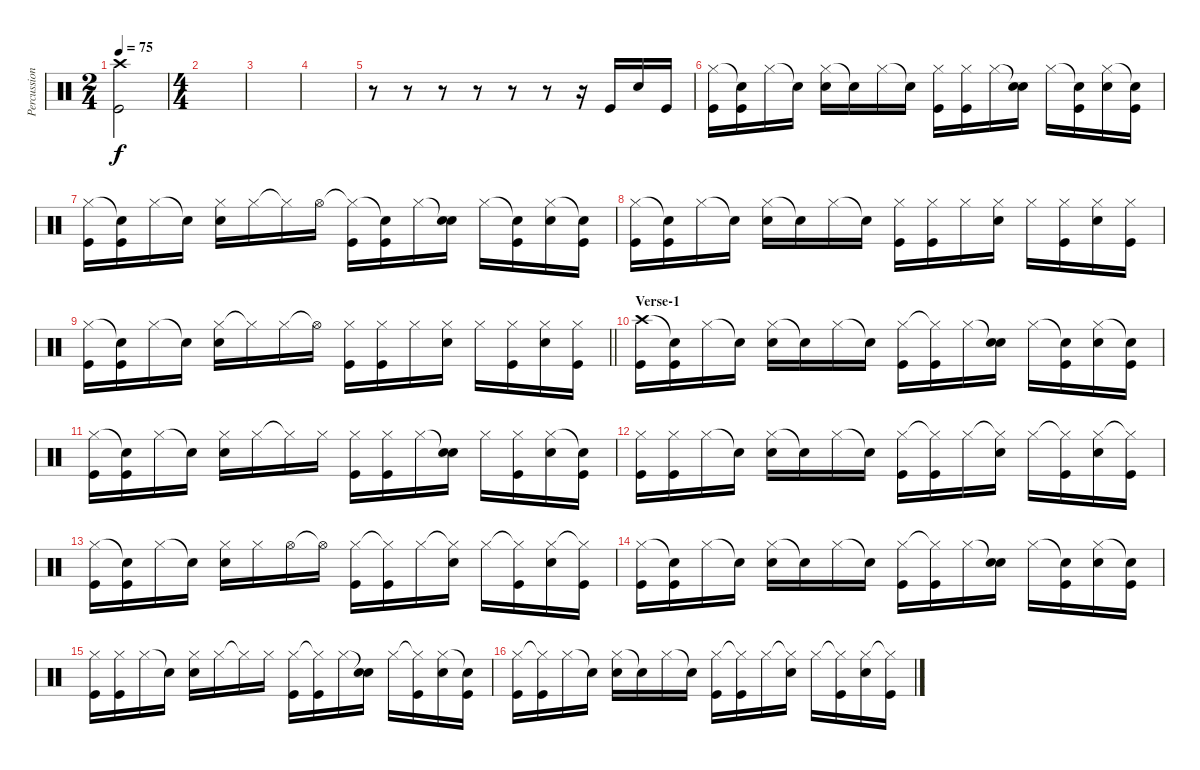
\track ("Percussion" "Percussion") {instrument percussion}
\staff {score}
\articulation defaults
\ts (2 4)
\tempo 75
\clef neutral
\ks c
("Crash high (hit)" "Kick (hit)").2{dy f} |
\ts (4 4)
|
|
|
r.8 r.8 r.8 r.8 r.8 r.8 r.16 "Kick (hit)".16 "Electric Snare (hit)".16 "Kick (hit)".16 |
("Hi-Hat (closed)" "Kick (hit)").16 ("Snare (hit)"{t} "Kick (hit)").16 "Hi-Hat (closed)".16 "Snare (hit)"{t}.16 ("Hi-Hat (closed)" "Electric Snare (hit)").16 "Snare (hit)"{t}.16 "Hi-Hat (closed)".16 "Snare (hit)"{t}.16 ("Hi-Hat (closed)" "Kick (hit)").16 ("Hi-Hat (closed)" "Kick (hit)").16 "Hi-Hat (closed)".16 ("Snare (hit)"{t} "Electric Snare (hit)").16 "Hi-Hat (closed)".16 ("Snare (hit)"{t} "Kick (hit)").16 ("Hi-Hat (closed)" "Electric Snare (hit)").16 ("Snare (hit)"{t} "Kick (hit)").16 |
("Hi-Hat (closed)" "Kick (hit)").16 ("Snare (hit)"{t} "Kick (hit)").16 "Hi-Hat (closed)".16 "Snare (hit)"{t}.16 ("Hi-Hat (closed)" "Electric Snare (hit)").16 "Hi-Hat (closed)".16 "Hi-Hat (closed)"{t}.16 "Hi-Hat (open)".16 ("Hi-Hat (closed)"{t} "Kick (hit)").16 ("Snare (hit)"{t} "Kick (hit)").16 "Hi-Hat (closed)".16 ("Snare (hit)"{t} "Electric Snare (hit)").16 "Hi-Hat (closed)".16 ("Snare (hit)"{t} "Kick (hit)").16 ("Hi-Hat (closed)" "Electric Snare (hit)").16 ("Snare (hit)"{t} "Kick (hit)").16 |
("Hi-Hat (closed)" "Kick (hit)").16 ("Snare (hit)"{t} "Kick (hit)").16 "Hi-Hat (closed)".16 "Snare (hit)"{t}.16 ("Hi-Hat (closed)" "Electric Snare (hit)").16 "Snare (hit)"{t}.16 "Hi-Hat (closed)".16 "Snare (hit)"{t}.16 ("Hi-Hat (closed)" "Kick (hit)").16 ("Hi-Hat (closed)" "Kick (hit)").16 "Hi-Hat (closed)".16 ("Hi-Hat (closed)" "Electric Snare (hit)").16 "Hi-Hat (closed)".16 ("Hi-Hat (closed)" "Kick (hit)").16 ("Hi-Hat (closed)" "Electric Snare (hit)").16 ("Hi-Hat (closed)" "Kick (hit)").16 |
\barLineRight lightlight
("Hi-Hat (closed)" "Kick (hit)").16 ("Snare (hit)"{t} "Kick (hit)").16 "Hi-Hat (closed)".16 "Snare (hit)"{t}.16 ("Hi-Hat (closed)" "Electric Snare (hit)").16 "Hi-Hat (closed)"{t}.16 "Hi-Hat (closed)".16 "Hi-Hat (open)"{t}.16 ("Hi-Hat (closed)" "Kick (hit)").16 ("Hi-Hat (closed)" "Kick (hit)").16 "Hi-Hat (closed)".16 ("Hi-Hat (closed)" "Electric Snare (hit)").16 "Hi-Hat (closed)".16 ("Hi-Hat (closed)" "Kick (hit)").16 ("Hi-Hat (closed)" "Electric Snare (hit)").16 ("Hi-Hat (closed)" "Kick (hit)").16 |
\section ("" "Verse-1")
("Crash high (hit)" "Kick (hit)").16 ("Snare (hit)"{t} "Kick (hit)").16 "Hi-Hat (closed)".16 "Snare (hit)"{t}.16 ("Hi-Hat (closed)" "Electric Snare (hit)").16 "Snare (hit)"{t}.16 "Hi-Hat (closed)".16 "Snare (hit)"{t}.16 ("Hi-Hat (closed)" "Kick (hit)").16 ("Hi-Hat (closed)"{t} "Kick (hit)").16 "Hi-Hat (closed)".16 ("Snare (hit)"{t} "Electric Snare (hit)").16 "Hi-Hat (closed)".16 ("Snare (hit)"{t} "Kick (hit)").16 ("Hi-Hat (closed)" "Electric Snare (hit)").16 ("Snare (hit)"{t} "Kick (hit)").16 |
("Hi-Hat (closed)" "Kick (hit)").16 ("Snare (hit)"{t} "Kick (hit)").16 "Hi-Hat (closed)".16 "Snare (hit)"{t}.16 ("Hi-Hat (closed)" "Electric Snare (hit)").16 "Hi-Hat (closed)".16 "Hi-Hat (closed)"{t}.16 "Hi-Hat (closed)".16 ("Hi-Hat (closed)" "Kick (hit)").16 ("Hi-Hat (closed)" "Kick (hit)").16 "Hi-Hat (closed)".16 ("Snare (hit)"{t} "Electric Snare (hit)").16 "Hi-Hat (closed)".16 ("Hi-Hat (closed)" "Kick (hit)").16 ("Hi-Hat (closed)" "Electric Snare (hit)").16 ("Snare (hit)"{t} "Kick (hit)").16 |
("Hi-Hat (closed)" "Kick (hit)").16 ("Hi-Hat (closed)" "Kick (hit)").16 "Hi-Hat (closed)".16 "Snare (hit)"{t}.16 ("Hi-Hat (closed)" "Electric Snare (hit)").16 "Snare (hit)"{t}.16 "Hi-Hat (closed)".16 "Snare (hit)"{t}.16 ("Hi-Hat (closed)" "Kick (hit)").16 ("Hi-Hat (closed)"{t} "Kick (hit)").16 "Hi-Hat (closed)".16 ("Hi-Hat (closed)"{t} "Electric Snare (hit)").16 "Hi-Hat (closed)".16 ("Hi-Hat (closed)"{t} "Kick (hit)").16 ("Hi-Hat (closed)" "Electric Snare (hit)").16 ("Hi-Hat (closed)"{t} "Kick (hit)").16 |
("Hi-Hat (closed)" "Kick (hit)").16 ("Snare (hit)"{t} "Kick (hit)").16 "Hi-Hat (closed)".16 "Snare (hit)"{t}.16 ("Hi-Hat (closed)" "Electric Snare (hit)").16 "Hi-Hat (closed)".16 "Hi-Hat (open)".16 "Hi-Hat (open)"{t}.16 ("Hi-Hat (closed)" "Kick (hit)").16 ("Hi-Hat (closed)"{t} "Kick (hit)").16 "Hi-Hat (closed)".16 ("Hi-Hat (closed)"{t} "Electric Snare (hit)").16 "Hi-Hat (closed)".16 ("Hi-Hat (closed)"{t} "Kick (hit)").16 ("Hi-Hat (closed)" "Electric Snare (hit)").16 ("Hi-Hat (closed)"{t} "Kick (hit)").16 |
("Hi-Hat (closed)" "Kick (hit)").16 ("Snare (hit)"{t} "Kick (hit)").16 "Hi-Hat (closed)".16 "Snare (hit)"{t}.16 ("Hi-Hat (closed)" "Electric Snare (hit)").16 "Snare (hit)"{t}.16 "Hi-Hat (closed)".16 "Snare (hit)"{t}.16 ("Hi-Hat (closed)" "Kick (hit)").16 ("Hi-Hat (closed)"{t} "Kick (hit)").16 "Hi-Hat (closed)".16 ("Snare (hit)"{t} "Electric Snare (hit)").16 "Hi-Hat (closed)".16 ("Snare (hit)"{t} "Kick (hit)").16 ("Hi-Hat (closed)" "Electric Snare (hit)").16 ("Snare (hit)"{t} "Kick (hit)").16 |
("Hi-Hat (closed)" "Kick (hit)").16 ("Hi-Hat (closed)" "Kick (hit)").16 "Hi-Hat (closed)".16 "Snare (hit)"{t}.16 ("Hi-Hat (closed)" "Electric Snare (hit)").16 "Hi-Hat (closed)".16 "Hi-Hat (closed)"{t}.16 "Hi-Hat (closed)".16 ("Hi-Hat (closed)" "Kick (hit)").16 ("Hi-Hat (closed)"{t} "Kick (hit)").16 "Hi-Hat (closed)".16 ("Snare (hit)"{t} "Electric Snare (hit)").16 "Hi-Hat (closed)".16 ("Hi-Hat (closed)"{t} "Kick (hit)").16 ("Hi-Hat (closed)" "Electric Snare (hit)").16 ("Snare (hit)"{t} "Kick (hit)").16 |
("Hi-Hat (closed)" "Kick (hit)").16 ("Hi-Hat (closed)"{t} "Kick (hit)").16 "Hi-Hat (closed)".16 "Snare (hit)"{t}.16 ("Hi-Hat (closed)" "Electric Snare (hit)").16 "Snare (hit)"{t}.16 "Hi-Hat (closed)".16 "Snare (hit)"{t}.16 ("Hi-Hat (closed)" "Kick (hit)").16 ("Hi-Hat (closed)"{t} "Kick (hit)").16 "Hi-Hat (closed)".16 ("Hi-Hat (closed)"{t} "Electric Snare (hit)").16 "Hi-Hat (closed)".16 ("Hi-Hat (closed)"{t} "Kick (hit)").16 ("Hi-Hat (closed)" "Electric Snare (hit)").16 ("Hi-Hat (closed)"{t} "Kick (hit)").16
